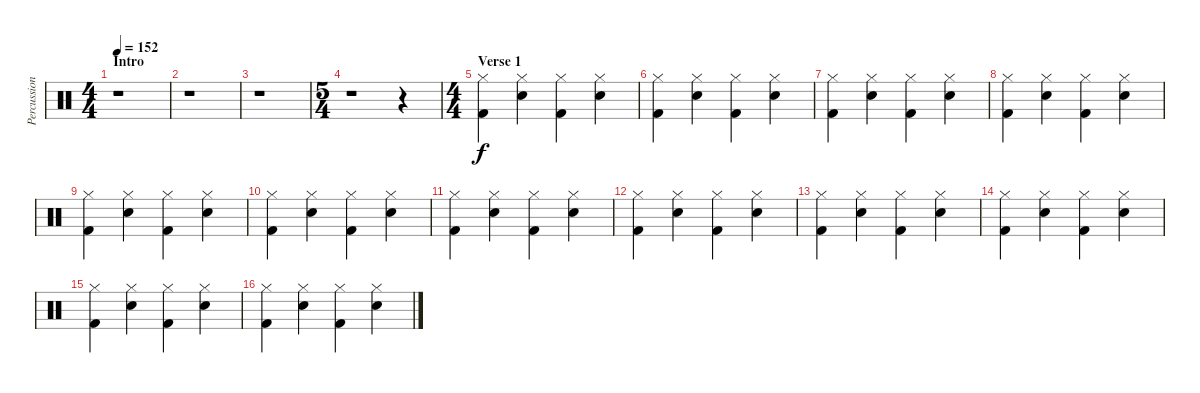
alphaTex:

\track ("Percussions" "Percussion") {instrument percussion}
\staff {score}
\articulation defaults
\ts (4 4)
\section ("" "Intro")
\tempo 152
\clef neutral
\ks c
r.1{dy f} |
r.1 |
r.1 |
\ts (5 4)
r.1 r.4 |
\ts (4 4)
\section ("" "Verse 1")
("Hi-Hat (closed)" "Kick (hit) 2").4 ("Hi-Hat (closed)" "Electric Snare (hit)").4 ("Hi-Hat (closed)" "Kick (hit) 2").4 ("Hi-Hat (closed)" "Electric Snare (hit)").4 |
("Hi-Hat (closed)" "Kick (hit) 2").4 ("Hi-Hat (closed)" "Electric Snare (hit)").4 ("Hi-Hat (closed)" "Kick (hit) 2").4 ("Hi-Hat (closed)" "Electric Snare (hit)").4 |
("Hi-Hat (closed)" "Kick (hit) 2").4 ("Hi-Hat (closed)" "Electric Snare (hit)").4 ("Hi-Hat (closed)" "Kick (hit) 2").4 ("Hi-Hat (closed)" "Electric Snare (hit)").4 |
("Hi-Hat (closed)" "Kick (hit) 2").4 ("Hi-Hat (closed)" "Electric Snare (hit)").4 ("Hi-Hat (closed)" "Kick (hit) 2").4 ("Hi-Hat (closed)" "Electric Snare (hit)").4 |
("Hi-Hat (closed)" "Kick (hit) 2").4 ("Hi-Hat (closed)" "Electric Snare (hit)").4 ("Hi-Hat (closed)" "Kick (hit) 2").4 ("Hi-Hat (closed)" "Electric Snare (hit)").4 |
("Hi-Hat (closed)" "Kick (hit) 2").4 ("Hi-Hat (closed)" "Electric Snare (hit)").4 ("Hi-Hat (closed)" "Kick (hit) 2").4 ("Hi-Hat (closed)" "Electric Snare (hit)").4 |
("Hi-Hat (closed)" "Kick (hit) 2").4 ("Hi-Hat (closed)" "Electric Snare (hit)").4 ("Hi-Hat (closed)" "Kick (hit) 2").4 ("Hi-Hat (closed)" "Electric Snare (hit)").4 |
("Hi-Hat (closed)" "Kick (hit) 2").4 ("Hi-Hat (closed)" "Electric Snare (hit)").4 ("Hi-Hat (closed)" "Kick (hit) 2").4 ("Hi-Hat (closed)" "Electric Snare (hit)").4 |
("Hi-Hat (closed)" "Kick (hit) 2").4 ("Hi-Hat (closed)" "Electric Snare (hit)").4 ("Hi-Hat (closed)" "Kick (hit) 2").4 ("Hi-Hat (closed)" "Electric Snare (hit)").4 |
("Hi-Hat (closed)" "Kick (hit) 2").4 ("Hi-Hat (closed)" "Electric Snare (hit)").4 ("Hi-Hat (closed)" "Kick (hit) 2").4 ("Hi-Hat (closed)" "Electric Snare (hit)").4 |
("Hi-Hat (closed)" "Kick (hit) 2").4 ("Hi-Hat (closed)" "Electric Snare (hit)").4 ("Hi-Hat (closed)" "Kick (hit) 2").4 ("Hi-Hat (closed)" "Electric Snare (hit)").4 |
("Hi-Hat (closed)" "Kick (hit) 2").4 ("Hi-Hat (closed)" "Electric Snare (hit)").4 ("Hi-Hat (closed)" "Kick (hit) 2").4 ("Hi-Hat (closed)" "Electric Snare (hit)").4
